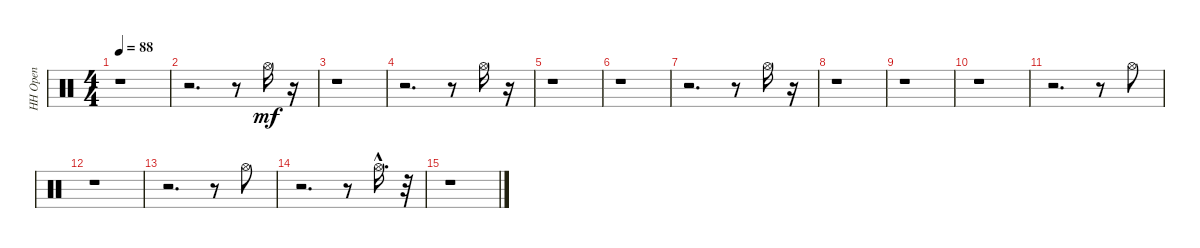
\track ("HH Open" "HH Open") {instrument percussion}
\staff {score}
\articulation defaults
\ts (4 4)
\tempo 88
\clef neutral
\ks c
r.1{dy mf} |
r.2{d} r.8 "Hi-Hat (open)".16 r.16 |
r.1 |
r.2{d} r.8 "Hi-Hat (open)".16 r.16 |
r.1 |
r.1 |
r.2{d} r.8 "Hi-Hat (open)".16 r.16 |
r.1 |
r.1 |
r.1 |
r.2{d} r.8 "Hi-Hat (open)".8 |
r.1 |
r.2{d} r.8 "Hi-Hat (open)".8 |
r.2{d} r.8 "Hi-Hat (open)"{hac}.16{d} r.32 |
r.1
